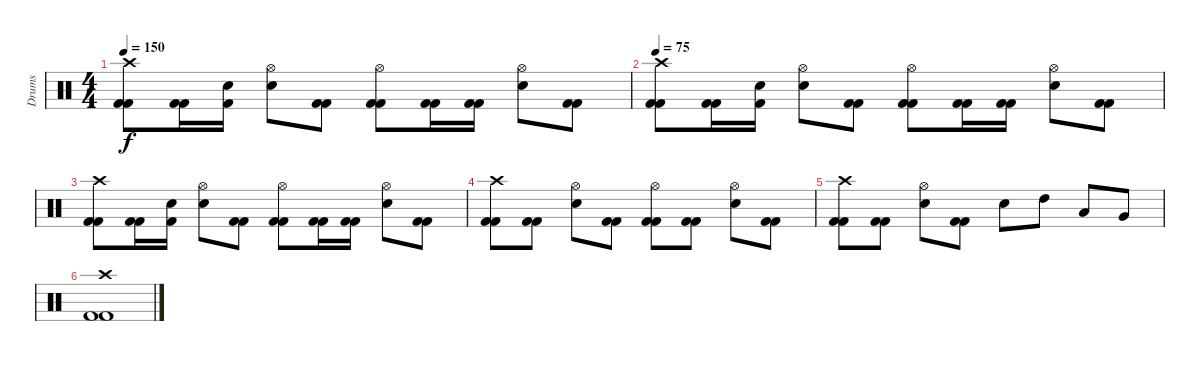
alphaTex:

\track ("Drums" "Drums") {instrument percussion}
\staff {score}
\articulation defaults
\ts (4 4)
\tempo 150
\clef neutral
\ks c
("Crash high (hit)" "Kick (hit) 2" "Kick (hit) 2").8{dy f} ("Kick (hit) 2" "Kick (hit) 2").16 ("Electric Snare (hit)" "Kick (hit) 2").16 ("Hi-Hat (open)" "Electric Snare (hit)").8 ("Kick (hit) 2" "Kick (hit) 2").8 ("Hi-Hat (open)" "Kick (hit) 2" "Kick (hit) 2").8 ("Kick (hit) 2" "Kick (hit) 2").16 ("Kick (hit) 2" "Kick (hit) 2").16 ("Electric Snare (hit)" "Hi-Hat (open)").8 ("Kick (hit) 2" "Kick (hit) 2").8 |
\tempo 75
("Crash high (hit)" "Kick (hit) 2" "Kick (hit) 2").8 ("Kick (hit) 2" "Kick (hit) 2").16 ("Electric Snare (hit)" "Kick (hit) 2").16 ("Hi-Hat (open)" "Electric Snare (hit)").8 ("Kick (hit) 2" "Kick (hit) 2").8 ("Hi-Hat (open)" "Kick (hit) 2" "Kick (hit) 2").8 ("Kick (hit) 2" "Kick (hit) 2").16 ("Kick (hit) 2" "Kick (hit) 2").16 ("Electric Snare (hit)" "Hi-Hat (open)").8 ("Kick (hit) 2" "Kick (hit) 2").8 |
("Crash high (hit)" "Kick (hit) 2" "Kick (hit) 2").8 ("Kick (hit) 2" "Kick (hit) 2").16 ("Electric Snare (hit)" "Kick (hit) 2").16 ("Hi-Hat (open)" "Electric Snare (hit)").8 ("Kick (hit) 2" "Kick (hit) 2").8 ("Hi-Hat (open)" "Kick (hit) 2" "Kick (hit) 2").8 ("Kick (hit) 2" "Kick (hit) 2").16 ("Kick (hit) 2" "Kick (hit) 2").16 ("Electric Snare (hit)" "Hi-Hat (open)").8 ("Kick (hit) 2" "Kick (hit) 2").8 |
("Crash high (hit)" "Kick (hit) 2" "Kick (hit) 2").8 ("Kick (hit) 2" "Kick (hit) 2").8 ("Hi-Hat (open)" "Electric Snare (hit)").8 ("Kick (hit) 2" "Kick (hit) 2").8 ("Kick (hit) 2" "Kick (hit) 2" "Hi-Hat (open)").8 ("Kick (hit) 2" "Kick (hit) 2").8 ("Hi-Hat (open)" "Electric Snare (hit)").8 ("Kick (hit) 2" "Kick (hit) 2").8 |
("Crash high (hit)" "Kick (hit) 2" "Kick (hit) 2").8 ("Kick (hit) 2" "Kick (hit) 2").8 ("Hi-Hat (open)" "Electric Snare (hit)").8 ("Kick (hit) 2" "Kick (hit) 2").8 "Electric Snare (hit)".8 "High Tom (hit)".8 "Low Tom (hit)".8 "Very Low Tom (hit)".8 |
("Kick (hit) 2" "Kick (hit) 2" "Crash high (hit)").1
